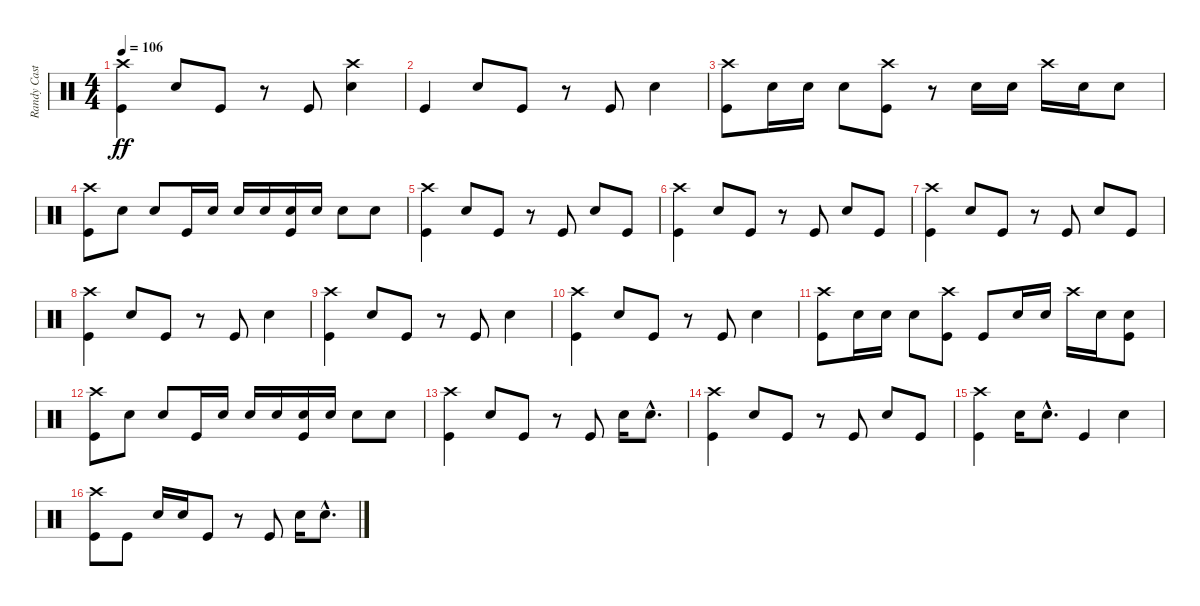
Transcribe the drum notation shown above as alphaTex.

\track ("Randy Castillo" "Randy Cast") {instrument percussion}
\staff {score}
\articulation defaults
\ts (4 4)
\tempo 106
\clef neutral
\ks c
("Crash high (hit)" "Kick (hit)").4{dy ff} "Snare (hit) 2".8 "Kick (hit)".8 r.8 "Kick (hit)".8 ("Crash high (hit)" "Snare (hit) 2").4 |
"Kick (hit)".4 "Snare (hit) 2".8 "Kick (hit)".8 r.8 "Kick (hit)".8 "Snare (hit) 2".4 |
("Crash high (hit)" "Kick (hit)").8 "Snare (hit) 2".16 "Snare (hit) 2".16 "Snare (hit) 2".8 ("Crash high (hit)" "Kick (hit)").8 r.8 "Snare (hit) 2".16 "Snare (hit) 2".16 "Crash high (hit)".16 "Snare (hit) 2".16 "Snare (hit) 2".8 |
("Crash high (hit)" "Kick (hit)").8 "Snare (hit) 2".8 "Snare (hit) 2".8 "Kick (hit)".16 "Snare (hit) 2".16 "Snare (hit) 2".16 "Snare (hit) 2".16 ("Snare (hit) 2" "Kick (hit)").16 "Snare (hit) 2".16 "Snare (hit) 2".8 "Snare (hit) 2".8 |
("Crash high (hit)" "Kick (hit)").4 "Snare (hit) 2".8 "Kick (hit)".8 r.8 "Kick (hit)".8 "Snare (hit) 2".8 "Kick (hit)".8 |
("Crash high (hit)" "Kick (hit)").4 "Snare (hit) 2".8 "Kick (hit)".8 r.8 "Kick (hit)".8 "Snare (hit) 2".8 "Kick (hit)".8 |
("Crash high (hit)" "Kick (hit)").4 "Snare (hit) 2".8 "Kick (hit)".8 r.8 "Kick (hit)".8 "Snare (hit) 2".8 "Kick (hit)".8 |
("Crash high (hit)" "Kick (hit)").4 "Snare (hit) 2".8 "Kick (hit)".8 r.8 "Kick (hit)".8 "Snare (hit) 2".4 |
("Crash high (hit)" "Kick (hit)").4 "Snare (hit) 2".8 "Kick (hit)".8 r.8 "Kick (hit)".8 "Snare (hit) 2".4 |
("Crash high (hit)" "Kick (hit)").4 "Snare (hit) 2".8 "Kick (hit)".8 r.8 "Kick (hit)".8 "Snare (hit) 2".4 |
("Crash high (hit)" "Kick (hit)").8 "Snare (hit) 2".16 "Snare (hit) 2".16 "Snare (hit) 2".8 ("Crash high (hit)" "Kick (hit)").8 "Kick (hit)".8 "Snare (hit) 2".16 "Snare (hit) 2".16 "Crash high (hit)".16 "Snare (hit) 2".16 ("Snare (hit) 2" "Kick (hit)").8 |
("Crash high (hit)" "Kick (hit)").8 "Snare (hit) 2".8 "Snare (hit) 2".8 "Kick (hit)".16 "Snare (hit) 2".16 "Snare (hit) 2".16 "Snare (hit) 2".16 ("Snare (hit) 2" "Kick (hit)").16 "Snare (hit) 2".16 "Snare (hit) 2".8 "Snare (hit) 2".8 |
("Crash high (hit)" "Kick (hit)").4 "Snare (hit) 2".8 "Kick (hit)".8 r.8 "Kick (hit)".8 "Snare (hit) 2".16 "Snare (hit) 2"{hac}.8{d} |
("Crash high (hit)" "Kick (hit)").4 "Snare (hit) 2".8 "Kick (hit)".8 r.8 "Kick (hit)".8 "Snare (hit) 2".8 "Kick (hit)".8 |
("Crash high (hit)" "Kick (hit)").4 "Snare (hit) 2".16 "Snare (hit) 2"{hac}.8{d} "Kick (hit)".4 "Snare (hit) 2".4 |
("Crash high (hit)" "Kick (hit)").8 "Kick (hit)".8 "Snare (hit) 2".16 "Snare (hit) 2".16 "Kick (hit)".8 r.8 "Kick (hit)".8 "Snare (hit) 2".16 "Snare (hit) 2"{hac}.8{d}
